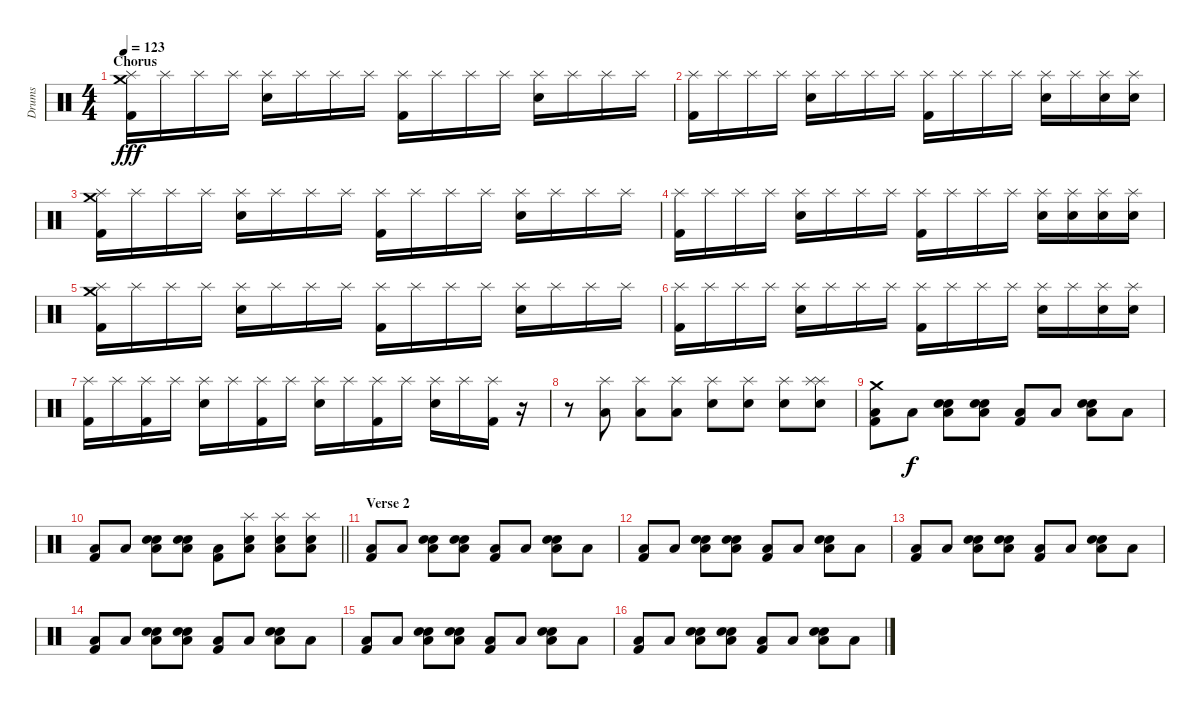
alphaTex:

\track ("Drums" "Drums") {instrument percussion}
\staff {score}
\articulation defaults
\ts (4 4)
\section ("" "Chorus")
\tempo 123
\clef neutral
\ks c
("Crash medium (hit)" "Splash (hit)" "Kick (hit) 2").16{dy fff} "Splash (hit)".16 "Splash (hit)".16 "Splash (hit)".16 ("Splash (hit)" "Electric Snare (hit)").16 "Splash (hit)".16 "Splash (hit)".16 "Splash (hit)".16 ("Splash (hit)" "Kick (hit) 2").16 "Splash (hit)".16 "Splash (hit)".16 "Splash (hit)".16 ("Splash (hit)" "Electric Snare (hit)").16 "Splash (hit)".16 "Splash (hit)".16 "Splash (hit)".16 |
("Splash (hit)" "Kick (hit) 2").16 "Splash (hit)".16 "Splash (hit)".16 "Splash (hit)".16 ("Splash (hit)" "Electric Snare (hit)").16 "Splash (hit)".16 "Splash (hit)".16 "Splash (hit)".16 ("Splash (hit)" "Kick (hit) 2").16 "Splash (hit)".16 "Splash (hit)".16 "Splash (hit)".16 ("Splash (hit)" "Electric Snare (hit)").16 "Splash (hit)".16 ("Splash (hit)" "Electric Snare (hit)").16 ("Splash (hit)" "Electric Snare (hit)").16 |
("Crash medium (hit)" "Splash (hit)" "Kick (hit) 2").16 "Splash (hit)".16 "Splash (hit)".16 "Splash (hit)".16 ("Splash (hit)" "Electric Snare (hit)").16 "Splash (hit)".16 "Splash (hit)".16 "Splash (hit)".16 ("Splash (hit)" "Kick (hit) 2").16 "Splash (hit)".16 "Splash (hit)".16 "Splash (hit)".16 ("Splash (hit)" "Electric Snare (hit)").16 "Splash (hit)".16 "Splash (hit)".16 "Splash (hit)".16 |
("Splash (hit)" "Kick (hit) 2").16 "Splash (hit)".16 "Splash (hit)".16 "Splash (hit)".16 ("Splash (hit)" "Electric Snare (hit)").16 "Splash (hit)".16 "Splash (hit)".16 "Splash (hit)".16 ("Splash (hit)" "Kick (hit) 2").16 "Splash (hit)".16 "Splash (hit)".16 "Splash (hit)".16 ("Splash (hit)" "Electric Snare (hit)").16 ("Splash (hit)" "Electric Snare (hit)").16 ("Splash (hit)" "Electric Snare (hit)").16 ("Splash (hit)" "Electric Snare (hit)").16 |
("Crash medium (hit)" "Splash (hit)" "Kick (hit) 2").16 "Splash (hit)".16 "Splash (hit)".16 "Splash (hit)".16 ("Splash (hit)" "Electric Snare (hit)").16 "Splash (hit)".16 "Splash (hit)".16 "Splash (hit)".16 ("Splash (hit)" "Kick (hit) 2").16 "Splash (hit)".16 "Splash (hit)".16 "Splash (hit)".16 ("Splash (hit)" "Electric Snare (hit)").16 "Splash (hit)".16 "Splash (hit)".16 "Splash (hit)".16 |
("Splash (hit)" "Kick (hit) 2").16 "Splash (hit)".16 "Splash (hit)".16 "Splash (hit)".16 ("Splash (hit)" "Electric Snare (hit)").16 "Splash (hit)".16 "Splash (hit)".16 "Splash (hit)".16 ("Splash (hit)" "Kick (hit) 2").16 "Splash (hit)".16 "Splash (hit)".16 "Splash (hit)".16 ("Splash (hit)" "Electric Snare (hit)").16 "Splash (hit)".16 ("Splash (hit)" "Electric Snare (hit)").16 ("Splash (hit)" "Electric Snare (hit)").16 |
("Splash (hit)" "Kick (hit) 2").16 "Splash (hit)".16 ("Splash (hit)" "Kick (hit) 2").16 "Splash (hit)".16 ("Splash (hit)" "Electric Snare (hit)").16 "Splash (hit)".16 ("Splash (hit)" "Kick (hit) 2").16 "Splash (hit)".16 ("Splash (hit)" "Electric Snare (hit)").16 "Splash (hit)".16 ("Splash (hit)" "Kick (hit) 2").16 "Splash (hit)".16 ("Splash (hit)" "Electric Snare (hit)").16 "Splash (hit)".16 ("Splash (hit)" "Kick (hit) 2").16 r.16 |
r.8 ("Splash (hit)" "Low Floor Tom (hit)").8 ("Splash (hit)" "Low Floor Tom (hit)").8 ("Splash (hit)" "Low Floor Tom (hit)").8 ("Splash (hit)" "Electric Snare (hit)").8 ("Splash (hit)" "Electric Snare (hit)").8 ("Splash (hit)" "Electric Snare (hit)").8 ("Splash (hit)" "Splash (hit)" "Electric Snare (hit)").8 |
("Crash medium (hit)" "Low Floor Tom (hit)" "Kick (hit) 2").8 "Low Floor Tom (hit)".8{dy f} ("Electric Snare (hit)" "Electric Snare (hit)" "Low Floor Tom (hit)").8 ("Electric Snare (hit)" "Electric Snare (hit)" "Low Floor Tom (hit)").8 ("Low Floor Tom (hit)" "Kick (hit) 2").8 "Low Floor Tom (hit)".8 ("Electric Snare (hit)" "Electric Snare (hit)" "Low Floor Tom (hit)").8 "Low Floor Tom (hit)".8 |
\barLineRight lightlight
("Low Floor Tom (hit)" "Kick (hit) 2").8 "Low Floor Tom (hit)".8 ("Electric Snare (hit)" "Electric Snare (hit)" "Low Floor Tom (hit)").8 ("Electric Snare (hit)" "Electric Snare (hit)" "Low Floor Tom (hit)").8 ("Low Floor Tom (hit)" "Kick (hit) 2").8 ("Splash (hit)" "Electric Snare (hit)" "Low Floor Tom (hit)").8 ("Splash (hit)" "Electric Snare (hit)" "Low Floor Tom (hit)").8 ("Splash (hit)" "Electric Snare (hit)" "Low Floor Tom (hit)").8 |
\section ("" "Verse 2")
("Low Floor Tom (hit)" "Kick (hit) 2").8 "Low Floor Tom (hit)".8 ("Electric Snare (hit)" "Electric Snare (hit)" "Low Floor Tom (hit)").8 ("Electric Snare (hit)" "Electric Snare (hit)" "Low Floor Tom (hit)").8 ("Low Floor Tom (hit)" "Kick (hit) 2").8 "Low Floor Tom (hit)".8 ("Electric Snare (hit)" "Electric Snare (hit)" "Low Floor Tom (hit)").8 "Low Floor Tom (hit)".8 |
("Low Floor Tom (hit)" "Kick (hit) 2").8 "Low Floor Tom (hit)".8 ("Electric Snare (hit)" "Electric Snare (hit)" "Low Floor Tom (hit)").8 ("Electric Snare (hit)" "Electric Snare (hit)" "Low Floor Tom (hit)").8 ("Low Floor Tom (hit)" "Kick (hit) 2").8 "Low Floor Tom (hit)".8 ("Electric Snare (hit)" "Electric Snare (hit)" "Low Floor Tom (hit)").8 "Low Floor Tom (hit)".8 |
("Low Floor Tom (hit)" "Kick (hit) 2").8 "Low Floor Tom (hit)".8 ("Electric Snare (hit)" "Electric Snare (hit)" "Low Floor Tom (hit)").8 ("Electric Snare (hit)" "Electric Snare (hit)" "Low Floor Tom (hit)").8 ("Low Floor Tom (hit)" "Kick (hit) 2").8 "Low Floor Tom (hit)".8 ("Electric Snare (hit)" "Electric Snare (hit)" "Low Floor Tom (hit)").8 "Low Floor Tom (hit)".8 |
("Low Floor Tom (hit)" "Kick (hit) 2").8 "Low Floor Tom (hit)".8 ("Electric Snare (hit)" "Electric Snare (hit)" "Low Floor Tom (hit)").8 ("Electric Snare (hit)" "Electric Snare (hit)" "Low Floor Tom (hit)").8 ("Low Floor Tom (hit)" "Kick (hit) 2").8 "Low Floor Tom (hit)".8 ("Electric Snare (hit)" "Electric Snare (hit)" "Low Floor Tom (hit)").8 "Low Floor Tom (hit)".8 |
("Low Floor Tom (hit)" "Kick (hit) 2").8 "Low Floor Tom (hit)".8 ("Electric Snare (hit)" "Electric Snare (hit)" "Low Floor Tom (hit)").8 ("Electric Snare (hit)" "Electric Snare (hit)" "Low Floor Tom (hit)").8 ("Low Floor Tom (hit)" "Kick (hit) 2").8 "Low Floor Tom (hit)".8 ("Electric Snare (hit)" "Electric Snare (hit)" "Low Floor Tom (hit)").8 "Low Floor Tom (hit)".8 |
("Low Floor Tom (hit)" "Kick (hit) 2").8 "Low Floor Tom (hit)".8 ("Electric Snare (hit)" "Electric Snare (hit)" "Low Floor Tom (hit)").8 ("Electric Snare (hit)" "Electric Snare (hit)" "Low Floor Tom (hit)").8 ("Low Floor Tom (hit)" "Kick (hit) 2").8 "Low Floor Tom (hit)".8 ("Electric Snare (hit)" "Electric Snare (hit)" "Low Floor Tom (hit)").8 "Low Floor Tom (hit)".8
